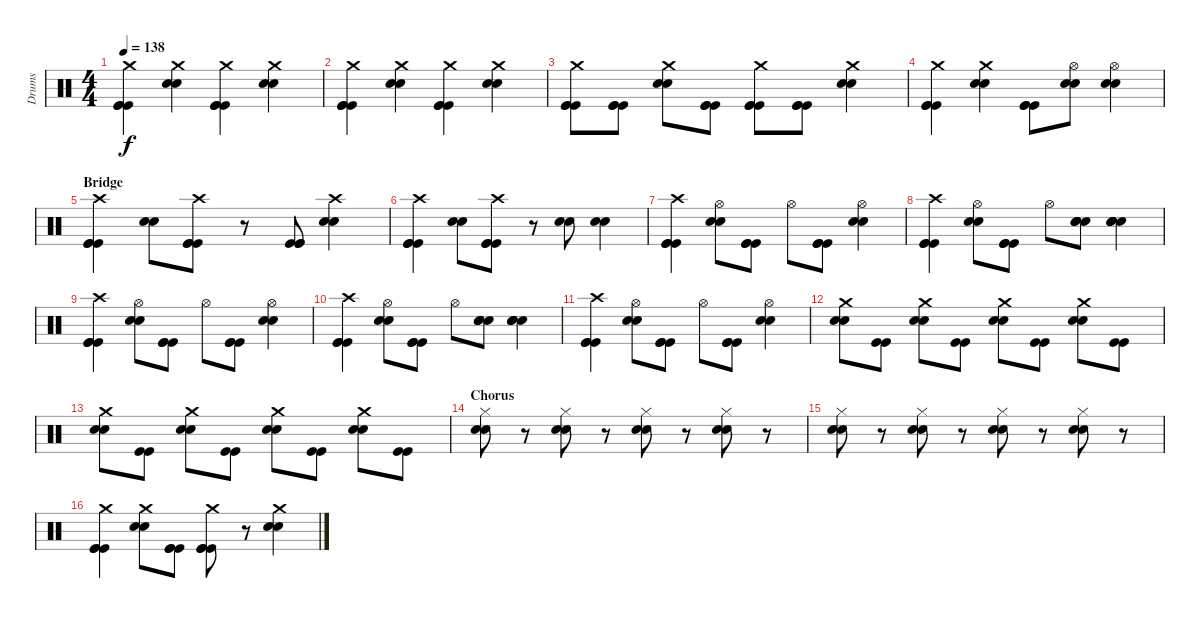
\track ("Drums" "Drums") {instrument percussion}
\staff {score}
\articulation defaults
\ts (4 4)
\tempo 138
\clef neutral
\ks c
("Crash medium (hit)" "Kick (hit)" "Kick (hit)" "Kick (hit)").4{dy f} ("Crash medium (hit)" "Electric Snare (hit)" "Electric Snare (hit)").4 ("Crash medium (hit)" "Kick (hit)" "Kick (hit)" "Kick (hit)").4 ("Crash medium (hit)" "Electric Snare (hit)" "Electric Snare (hit)").4 |
("Crash medium (hit)" "Kick (hit)" "Kick (hit)" "Kick (hit)").4 ("Crash medium (hit)" "Electric Snare (hit)" "Electric Snare (hit)").4 ("Crash medium (hit)" "Kick (hit)" "Kick (hit)" "Kick (hit)").4 ("Crash medium (hit)" "Electric Snare (hit)" "Electric Snare (hit)").4 |
("Crash medium (hit)" "Kick (hit)" "Kick (hit)" "Kick (hit)").8 ("Kick (hit)" "Kick (hit)" "Kick (hit)").8 ("Crash medium (hit)" "Electric Snare (hit)" "Electric Snare (hit)").8 ("Kick (hit)" "Kick (hit)" "Kick (hit)").8 ("Crash medium (hit)" "Kick (hit)" "Kick (hit)" "Kick (hit)").8 ("Kick (hit)" "Kick (hit)" "Kick (hit)").8 ("Crash medium (hit)" "Electric Snare (hit)" "Electric Snare (hit)").4 |
("Crash medium (hit)" "Kick (hit)" "Kick (hit)" "Kick (hit)").4 ("Crash medium (hit)" "Electric Snare (hit)" "Electric Snare (hit)").4 ("Kick (hit)" "Kick (hit)" "Kick (hit)").8 ("Hi-Hat (open)" "Electric Snare (hit)" "Electric Snare (hit)").8 ("Hi-Hat (open)" "Electric Snare (hit)" "Electric Snare (hit)").4 |
\section ("" "Bridge")
("Crash high (hit)" "Kick (hit)" "Kick (hit)" "Kick (hit)").4 ("Electric Snare (hit)" "Electric Snare (hit)").8 ("Crash high (hit)" "Kick (hit)" "Kick (hit)" "Kick (hit)").8 r.8 ("Kick (hit)" "Kick (hit)" "Kick (hit)").8 ("Crash high (hit)" "Electric Snare (hit)" "Electric Snare (hit)").4 |
("Crash high (hit)" "Kick (hit)" "Kick (hit)" "Kick (hit)").4 ("Electric Snare (hit)" "Electric Snare (hit)").8 ("Crash high (hit)" "Kick (hit)" "Kick (hit)" "Kick (hit)").8 r.8 ("Electric Snare (hit)" "Electric Snare (hit)").8 ("Electric Snare (hit)" "Electric Snare (hit)").4 |
("Crash high (hit)" "Kick (hit)" "Kick (hit)" "Kick (hit)").4 ("Hi-Hat (open)" "Electric Snare (hit)" "Electric Snare (hit)").8 ("Kick (hit)" "Kick (hit)" "Kick (hit)").8 "Hi-Hat (open)".8 ("Kick (hit)" "Kick (hit)" "Kick (hit)").8 ("Hi-Hat (open)" "Electric Snare (hit)" "Electric Snare (hit)").4 |
("Crash high (hit)" "Kick (hit)" "Kick (hit)" "Kick (hit)").4 ("Hi-Hat (open)" "Electric Snare (hit)" "Electric Snare (hit)").8 ("Kick (hit)" "Kick (hit)" "Kick (hit)").8 "Hi-Hat (open)".8 ("Electric Snare (hit)" "Electric Snare (hit)" "Hand Clap (hit)" "Hand Clap (hit)").8 ("Electric Snare (hit)" "Electric Snare (hit)" "Hand Clap (hit)" "Hand Clap (hit)").4 |
("Crash high (hit)" "Kick (hit)" "Kick (hit)" "Kick (hit)").4 ("Hi-Hat (open)" "Electric Snare (hit)" "Electric Snare (hit)").8 ("Kick (hit)" "Kick (hit)" "Kick (hit)").8 "Hi-Hat (open)".8 ("Kick (hit)" "Kick (hit)" "Kick (hit)").8 ("Hi-Hat (open)" "Electric Snare (hit)" "Electric Snare (hit)").4 |
("Crash high (hit)" "Kick (hit)" "Kick (hit)" "Kick (hit)").4 ("Hi-Hat (open)" "Electric Snare (hit)" "Electric Snare (hit)").8 ("Kick (hit)" "Kick (hit)" "Kick (hit)").8 "Hi-Hat (open)".8 ("Electric Snare (hit)" "Electric Snare (hit)" "Hand Clap (hit)" "Hand Clap (hit)").8 ("Electric Snare (hit)" "Electric Snare (hit)" "Hand Clap (hit)" "Hand Clap (hit)").4 |
("Crash high (hit)" "Kick (hit)" "Kick (hit)" "Kick (hit)").4 ("Hi-Hat (open)" "Electric Snare (hit)" "Electric Snare (hit)").8 ("Kick (hit)" "Kick (hit)" "Kick (hit)").8 "Hi-Hat (open)".8 ("Kick (hit)" "Kick (hit)" "Kick (hit)").8 ("Hi-Hat (open)" "Electric Snare (hit)" "Electric Snare (hit)").4 |
("Crash medium (hit)" "Electric Snare (hit)" "Electric Snare (hit)").8 ("Kick (hit)" "Kick (hit)").8 ("Crash medium (hit)" "Electric Snare (hit)" "Electric Snare (hit)").8 ("Kick (hit)" "Kick (hit)").8 ("Crash medium (hit)" "Electric Snare (hit)" "Electric Snare (hit)").8 ("Kick (hit)" "Kick (hit)").8 ("Crash medium (hit)" "Electric Snare (hit)" "Electric Snare (hit)").8 ("Kick (hit)" "Kick (hit)").8 |
("Crash medium (hit)" "Electric Snare (hit)" "Electric Snare (hit)").8 ("Kick (hit)" "Kick (hit)").8 ("Crash medium (hit)" "Electric Snare (hit)" "Electric Snare (hit)").8 ("Kick (hit)" "Kick (hit)").8 ("Crash medium (hit)" "Electric Snare (hit)" "Electric Snare (hit)").8 ("Kick (hit)" "Kick (hit)").8 ("Crash medium (hit)" "Electric Snare (hit)" "Electric Snare (hit)").8 ("Kick (hit)" "Kick (hit)").8 |
\section ("" "Chorus")
("Hi-Hat (closed)" "Electric Snare (hit)" "Electric Snare (hit)").8 r.8 ("Hi-Hat (closed)" "Electric Snare (hit)" "Electric Snare (hit)").8 r.8 ("Hi-Hat (closed)" "Electric Snare (hit)" "Electric Snare (hit)").8 r.8 ("Hi-Hat (closed)" "Electric Snare (hit)" "Electric Snare (hit)").8 r.8 |
("Hi-Hat (closed)" "Electric Snare (hit)" "Electric Snare (hit)").8 r.8 ("Hi-Hat (closed)" "Electric Snare (hit)" "Electric Snare (hit)").8 r.8 ("Hi-Hat (closed)" "Electric Snare (hit)" "Electric Snare (hit)").8 r.8 ("Hi-Hat (closed)" "Electric Snare (hit)" "Electric Snare (hit)").8 r.8 |
("Crash medium (hit)" "Kick (hit)" "Kick (hit)" "Kick (hit)").4 ("Crash medium (hit)" "Electric Snare (hit)" "Electric Snare (hit)").8 ("Kick (hit)" "Kick (hit)" "Kick (hit)").8 ("Crash medium (hit)" "Kick (hit)" "Kick (hit)" "Kick (hit)").8 r.8 ("Crash medium (hit)" "Electric Snare (hit)" "Electric Snare (hit)").4
